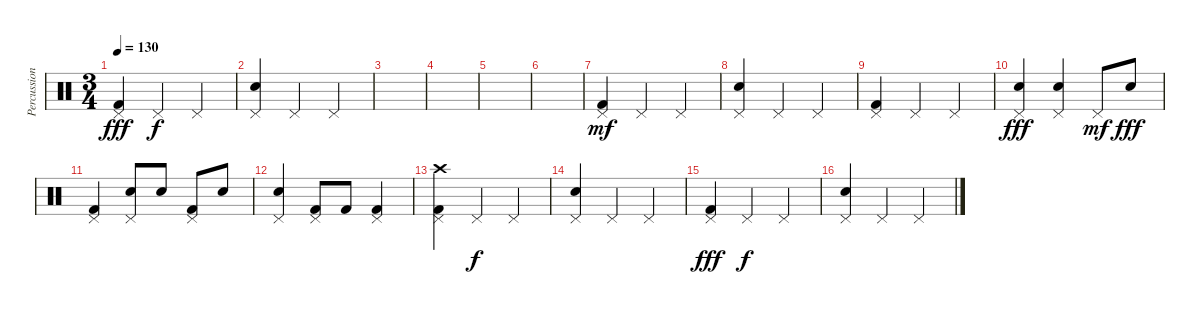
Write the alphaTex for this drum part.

\track ("Percussion" "Percussion") {instrument percussion}
\staff {score}
\articulation defaults
\ts (3 4)
\tempo 130
\clef neutral
\ks c
("Pedal Hi-Hat (hit)" "Kick (hit) 2").4{dy fff} "Pedal Hi-Hat (hit)".4{dy f} "Pedal Hi-Hat (hit)".4 |
("Pedal Hi-Hat (hit)" "Electric Snare (hit)").4 "Pedal Hi-Hat (hit)".4 "Pedal Hi-Hat (hit)".4 |
|
|
|
|
("Pedal Hi-Hat (hit)" "Kick (hit) 2").4{dy mf} "Pedal Hi-Hat (hit)".4 "Pedal Hi-Hat (hit)".4 |
("Pedal Hi-Hat (hit)" "Electric Snare (hit)").4 "Pedal Hi-Hat (hit)".4 "Pedal Hi-Hat (hit)".4 |
("Pedal Hi-Hat (hit)" "Kick (hit) 2").4 "Pedal Hi-Hat (hit)".4 "Pedal Hi-Hat (hit)".4 |
("Pedal Hi-Hat (hit)" "Electric Snare (hit)").4{dy fff} ("Pedal Hi-Hat (hit)" "Electric Snare (hit)").4 "Pedal Hi-Hat (hit)".8{dy mf} "Electric Snare (hit)".8{dy fff} |
("Pedal Hi-Hat (hit)" "Kick (hit) 2").4 ("Pedal Hi-Hat (hit)" "Electric Snare (hit)").8 "Electric Snare (hit)".8 ("Pedal Hi-Hat (hit)" "Kick (hit) 2").8 "Electric Snare (hit)".8 |
("Pedal Hi-Hat (hit)" "Electric Snare (hit)").4 ("Pedal Hi-Hat (hit)" "Kick (hit) 2").8 "Kick (hit) 2".8 ("Pedal Hi-Hat (hit)" "Kick (hit) 2").4 |
("Crash high (hit)" "Pedal Hi-Hat (hit)" "Kick (hit) 2").4 "Pedal Hi-Hat (hit)".4{dy f} "Pedal Hi-Hat (hit)".4 |
("Pedal Hi-Hat (hit)" "Electric Snare (hit)").4 "Pedal Hi-Hat (hit)".4 "Pedal Hi-Hat (hit)".4 |
("Pedal Hi-Hat (hit)" "Kick (hit) 2").4{dy fff} "Pedal Hi-Hat (hit)".4{dy f} "Pedal Hi-Hat (hit)".4 |
("Pedal Hi-Hat (hit)" "Electric Snare (hit)").4 "Pedal Hi-Hat (hit)".4 "Pedal Hi-Hat (hit)".4
